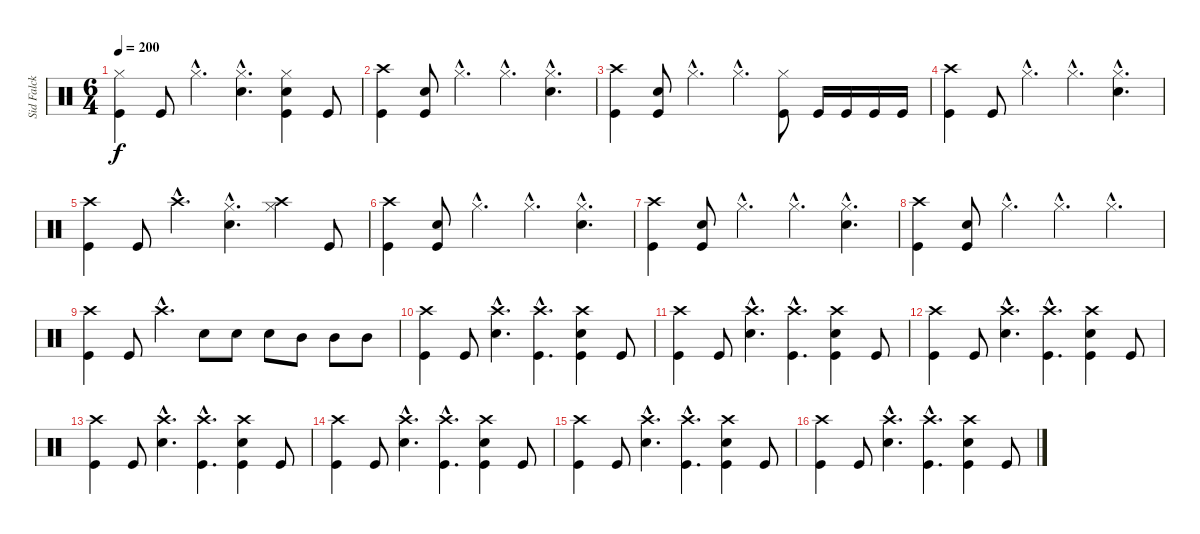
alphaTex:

\track ("Sid Falck - drums" "Sid Falck ") {instrument percussion}
\staff {score}
\articulation defaults
\ts (6 4)
\tempo 200
\clef neutral
\ks c
("Hi-Hat (closed)" "Kick (hit)").4{dy f} "Kick (hit)".8 "Hi-Hat (closed)"{hac}.4{d} ("Hi-Hat (closed)"{hac} "Electric Snare (hit)"{hac}).4{d} ("Hi-Hat (closed)" "Electric Snare (hit)" "Kick (hit)").4 "Kick (hit)".8 |
("Crash high (hit)" "Kick (hit)").4 ("Electric Snare (hit)" "Kick (hit)").8 "Hi-Hat (closed)"{hac}.4{d} "Hi-Hat (closed)"{hac}.4{d} ("Hi-Hat (closed)"{hac} "Electric Snare (hit)"{hac}).4{d} |
("Crash high (hit)" "Kick (hit)").4 ("Electric Snare (hit)" "Kick (hit)").8 "Hi-Hat (closed)"{hac}.4{d} "Hi-Hat (closed)"{hac}.4{d} ("Hi-Hat (closed)" "Kick (hit)").8 "Kick (hit)".16 "Kick (hit)".16 "Kick (hit)".16 "Kick (hit)".16 |
("Crash high (hit)" "Kick (hit)").4 "Kick (hit)".8 "Hi-Hat (closed)"{hac}.4{d} "Hi-Hat (closed)"{hac}.4{d} ("Hi-Hat (closed)"{hac} "Electric Snare (hit)"{hac}).4{d} |
("Crash high (hit)" "Kick (hit)").4 "Kick (hit)".8 "Crash high (hit)"{hac}.4{d} ("Hi-Hat (closed)"{hac} "Electric Snare (hit)"{hac}).4{d} ("Crash high (hit)" "Hi-Hat (closed)").4 "Kick (hit)".8 |
("Crash high (hit)" "Kick (hit)").4 ("Electric Snare (hit)" "Kick (hit)").8 "Hi-Hat (closed)"{hac}.4{d} "Hi-Hat (closed)"{hac}.4{d} ("Hi-Hat (closed)"{hac} "Electric Snare (hit)"{hac}).4{d} |
("Crash high (hit)" "Kick (hit)").4 ("Electric Snare (hit)" "Kick (hit)").8 "Hi-Hat (closed)"{hac}.4{d} "Hi-Hat (closed)"{hac}.4{d} ("Hi-Hat (closed)"{hac} "Electric Snare (hit)"{hac}).4{d} |
("Crash high (hit)" "Kick (hit)").4 ("Electric Snare (hit)" "Kick (hit)").8 "Hi-Hat (closed)"{hac}.4{d} "Hi-Hat (closed)"{hac}.4{d} "Hi-Hat (closed)"{hac}.4{d} |
("Crash high (hit)" "Kick (hit)").4 "Kick (hit)".8 "Crash high (hit)"{hac}.4{d} "Electric Snare (hit)".8 "Electric Snare (hit)".8 "Electric Snare (hit)".8 "Mid Tom (hit)".8 "Mid Tom (hit)".8 "Mid Tom (hit)".8 |
("Crash high (hit)" "Kick (hit)").4 "Kick (hit)".8 ("Crash high (hit)"{hac} "Electric Snare (hit)"{hac}).4{d} ("Crash high (hit)"{hac} "Kick (hit)"{hac}).4{d} ("Crash high (hit)" "Electric Snare (hit)" "Kick (hit)").4 "Kick (hit)".8 |
("Crash high (hit)" "Kick (hit)").4 "Kick (hit)".8 ("Crash high (hit)"{hac} "Electric Snare (hit)"{hac}).4{d} ("Crash high (hit)"{hac} "Kick (hit)"{hac}).4{d} ("Crash high (hit)" "Electric Snare (hit)" "Kick (hit)").4 "Kick (hit)".8 |
("Crash high (hit)" "Kick (hit)").4 "Kick (hit)".8 ("Crash high (hit)"{hac} "Electric Snare (hit)"{hac}).4{d} ("Crash high (hit)"{hac} "Kick (hit)"{hac}).4{d} ("Crash high (hit)" "Electric Snare (hit)" "Kick (hit)").4 "Kick (hit)".8 |
("Crash high (hit)" "Kick (hit)").4 "Kick (hit)".8 ("Crash high (hit)"{hac} "Electric Snare (hit)"{hac}).4{d} ("Crash high (hit)"{hac} "Kick (hit)"{hac}).4{d} ("Crash high (hit)" "Electric Snare (hit)" "Kick (hit)").4 "Kick (hit)".8 |
("Crash high (hit)" "Kick (hit)").4 "Kick (hit)".8 ("Crash high (hit)"{hac} "Electric Snare (hit)"{hac}).4{d} ("Crash high (hit)"{hac} "Kick (hit)"{hac}).4{d} ("Crash high (hit)" "Electric Snare (hit)" "Kick (hit)").4 "Kick (hit)".8 |
("Crash high (hit)" "Kick (hit)").4 "Kick (hit)".8 ("Crash high (hit)"{hac} "Electric Snare (hit)"{hac}).4{d} ("Crash high (hit)"{hac} "Kick (hit)"{hac}).4{d} ("Crash high (hit)" "Electric Snare (hit)" "Kick (hit)").4 "Kick (hit)".8 |
("Crash high (hit)" "Kick (hit)").4 "Kick (hit)".8 ("Crash high (hit)"{hac} "Electric Snare (hit)"{hac}).4{d} ("Crash high (hit)"{hac} "Kick (hit)"{hac}).4{d} ("Crash high (hit)" "Electric Snare (hit)" "Kick (hit)").4 "Kick (hit)".8
